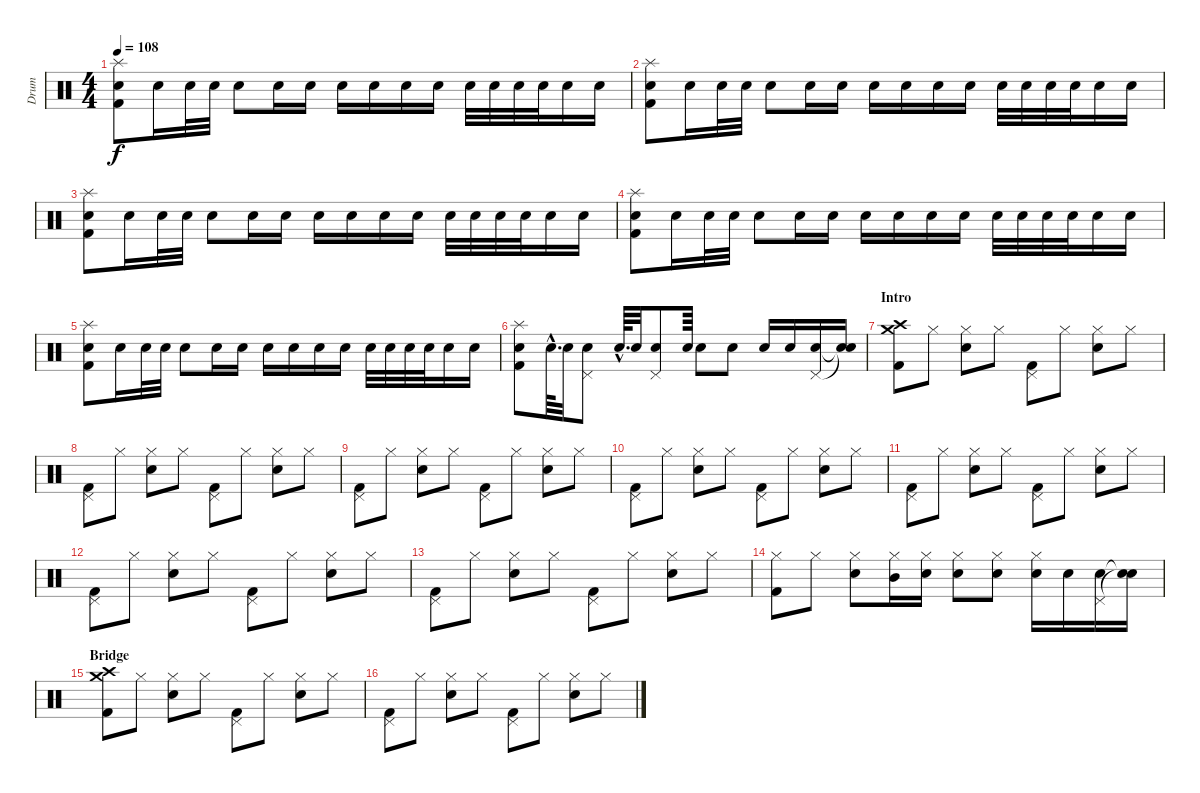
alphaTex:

\track ("Drum" "Drum") {instrument percussion}
\staff {score}
\articulation defaults
\ts (4 4)
\tempo 108
\clef neutral
\ks c
("Splash (hit)" "Electric Snare (hit)" "Kick (hit) 2").8{dy f} "Electric Snare (hit)".16 "Electric Snare (hit)".32 "Electric Snare (hit)".32 "Electric Snare (hit)".8 "Electric Snare (hit)".16 "Electric Snare (hit)".16 "Electric Snare (hit)".16 "Electric Snare (hit)".16 "Electric Snare (hit)".16 "Electric Snare (hit)".16 "Electric Snare (hit)".32 "Electric Snare (hit)".32 "Electric Snare (hit)".32 "Electric Snare (hit)".32 "Electric Snare (hit)".16 "Electric Snare (hit)".16 |
("Splash (hit)" "Electric Snare (hit)" "Kick (hit) 2").8 "Electric Snare (hit)".16 "Electric Snare (hit)".32 "Electric Snare (hit)".32 "Electric Snare (hit)".8 "Electric Snare (hit)".16 "Electric Snare (hit)".16 "Electric Snare (hit)".16 "Electric Snare (hit)".16 "Electric Snare (hit)".16 "Electric Snare (hit)".16 "Electric Snare (hit)".32 "Electric Snare (hit)".32 "Electric Snare (hit)".32 "Electric Snare (hit)".32 "Electric Snare (hit)".16 "Electric Snare (hit)".16 |
("Splash (hit)" "Electric Snare (hit)" "Kick (hit) 2").8 "Electric Snare (hit)".16 "Electric Snare (hit)".32 "Electric Snare (hit)".32 "Electric Snare (hit)".8 "Electric Snare (hit)".16 "Electric Snare (hit)".16 "Electric Snare (hit)".16 "Electric Snare (hit)".16 "Electric Snare (hit)".16 "Electric Snare (hit)".16 "Electric Snare (hit)".32 "Electric Snare (hit)".32 "Electric Snare (hit)".32 "Electric Snare (hit)".32 "Electric Snare (hit)".16 "Electric Snare (hit)".16 |
("Splash (hit)" "Electric Snare (hit)" "Kick (hit) 2").8 "Electric Snare (hit)".16 "Electric Snare (hit)".32 "Electric Snare (hit)".32 "Electric Snare (hit)".8 "Electric Snare (hit)".16 "Electric Snare (hit)".16 "Electric Snare (hit)".16 "Electric Snare (hit)".16 "Electric Snare (hit)".16 "Electric Snare (hit)".16 "Electric Snare (hit)".32 "Electric Snare (hit)".32 "Electric Snare (hit)".32 "Electric Snare (hit)".32 "Electric Snare (hit)".16 "Electric Snare (hit)".16 |
("Splash (hit)" "Electric Snare (hit)" "Kick (hit) 2").8 "Electric Snare (hit)".16 "Electric Snare (hit)".32 "Electric Snare (hit)".32 "Electric Snare (hit)".8 "Electric Snare (hit)".16 "Electric Snare (hit)".16 "Electric Snare (hit)".16 "Electric Snare (hit)".16 "Electric Snare (hit)".16 "Electric Snare (hit)".16 "Electric Snare (hit)".32 "Electric Snare (hit)".32 "Electric Snare (hit)".32 "Electric Snare (hit)".32 "Electric Snare (hit)".16 "Electric Snare (hit)".16 |
("Splash (hit)" "Electric Snare (hit)" "Kick (hit) 2").8 "Electric Snare (hit)"{hac}.64{d} "Electric Snare (hit)".32 ("Pedal Hi-Hat (hit)" "Electric Snare (hit)").8 "Electric Snare (hit)"{hac}.64{d} "Electric Snare (hit)".32 ("Pedal Hi-Hat (hit)" "Electric Snare (hit)").8 "Electric Snare (hit)".64 "Electric Snare (hit)".8 "Electric Snare (hit)".8 "Electric Snare (hit)".16 "Electric Snare (hit)".16 ("Pedal Hi-Hat (hit)" "Electric Snare (hit)").16 ("Snare (hit)"{t} "Snare (hit)"{t}).16 |
\section ("" "Intro")
("Kick (hit) 2" "Crash high (hit)" "Crash medium (hit)").8 "Hi-Hat (closed)".8 ("Hi-Hat (closed)" "Electric Snare (hit)").8 "Hi-Hat (closed)".8 ("Pedal Hi-Hat (hit)" "Kick (hit) 2").8 "Hi-Hat (closed)".8 ("Hi-Hat (closed)" "Electric Snare (hit)").8 "Hi-Hat (closed)".8 |
("Pedal Hi-Hat (hit)" "Kick (hit) 2").8 "Hi-Hat (closed)".8 ("Hi-Hat (closed)" "Electric Snare (hit)").8 "Hi-Hat (closed)".8 ("Pedal Hi-Hat (hit)" "Kick (hit) 2").8 "Hi-Hat (closed)".8 ("Hi-Hat (closed)" "Electric Snare (hit)").8 "Hi-Hat (closed)".8 |
("Pedal Hi-Hat (hit)" "Kick (hit) 2").8 "Hi-Hat (closed)".8 ("Hi-Hat (closed)" "Electric Snare (hit)").8 "Hi-Hat (closed)".8 ("Pedal Hi-Hat (hit)" "Kick (hit) 2").8 "Hi-Hat (closed)".8 ("Hi-Hat (closed)" "Electric Snare (hit)").8 "Hi-Hat (closed)".8 |
("Pedal Hi-Hat (hit)" "Kick (hit) 2").8 "Hi-Hat (closed)".8 ("Hi-Hat (closed)" "Electric Snare (hit)").8 "Hi-Hat (closed)".8 ("Pedal Hi-Hat (hit)" "Kick (hit) 2").8 "Hi-Hat (closed)".8 ("Hi-Hat (closed)" "Electric Snare (hit)").8 "Hi-Hat (closed)".8 |
("Pedal Hi-Hat (hit)" "Kick (hit) 2").8 "Hi-Hat (closed)".8 ("Hi-Hat (closed)" "Electric Snare (hit)").8 "Hi-Hat (closed)".8 ("Pedal Hi-Hat (hit)" "Kick (hit) 2").8 "Hi-Hat (closed)".8 ("Hi-Hat (closed)" "Electric Snare (hit)").8 "Hi-Hat (closed)".8 |
("Pedal Hi-Hat (hit)" "Kick (hit) 2").8 "Hi-Hat (closed)".8 ("Hi-Hat (closed)" "Electric Snare (hit)").8 "Hi-Hat (closed)".8 ("Pedal Hi-Hat (hit)" "Kick (hit) 2").8 "Hi-Hat (closed)".8 ("Hi-Hat (closed)" "Electric Snare (hit)").8 "Hi-Hat (closed)".8 |
("Pedal Hi-Hat (hit)" "Kick (hit) 2").8 "Hi-Hat (closed)".8 ("Hi-Hat (closed)" "Electric Snare (hit)").8 "Hi-Hat (closed)".8 ("Pedal Hi-Hat (hit)" "Kick (hit) 2").8 "Hi-Hat (closed)".8 ("Hi-Hat (closed)" "Electric Snare (hit)").8 "Hi-Hat (closed)".8 |
("Hi-Hat (closed)" "Kick (hit) 2").8 "Hi-Hat (closed)".8 ("Hi-Hat (closed)" "Electric Snare (hit)").8 ("Hi-Hat (closed)" "Mid Tom (hit)").16 ("Hi-Hat (closed)" "Electric Snare (hit)").16 ("Hi-Hat (closed)" "Electric Snare (hit)").8 ("Hi-Hat (closed)" "Electric Snare (hit)").8 ("Hi-Hat (closed)" "Electric Snare (hit)").16 "Electric Snare (hit)".16 ("Pedal Hi-Hat (hit)" "Electric Snare (hit)").16 ("Snare (hit)"{t} "Snare (hit)"{t}).16 |
\section ("" "Bridge ")
("Kick (hit) 2" "Crash high (hit)" "Crash medium (hit)").8 "Hi-Hat (closed)".8 ("Hi-Hat (closed)" "Electric Snare (hit)").8 "Hi-Hat (closed)".8 ("Pedal Hi-Hat (hit)" "Kick (hit) 2").8 "Hi-Hat (closed)".8 ("Hi-Hat (closed)" "Electric Snare (hit)").8 "Hi-Hat (closed)".8 |
("Pedal Hi-Hat (hit)" "Kick (hit) 2").8 "Hi-Hat (closed)".8 ("Hi-Hat (closed)" "Electric Snare (hit)").8 "Hi-Hat (closed)".8 ("Pedal Hi-Hat (hit)" "Kick (hit) 2").8 "Hi-Hat (closed)".8 ("Hi-Hat (closed)" "Electric Snare (hit)").8 "Hi-Hat (closed)".8
